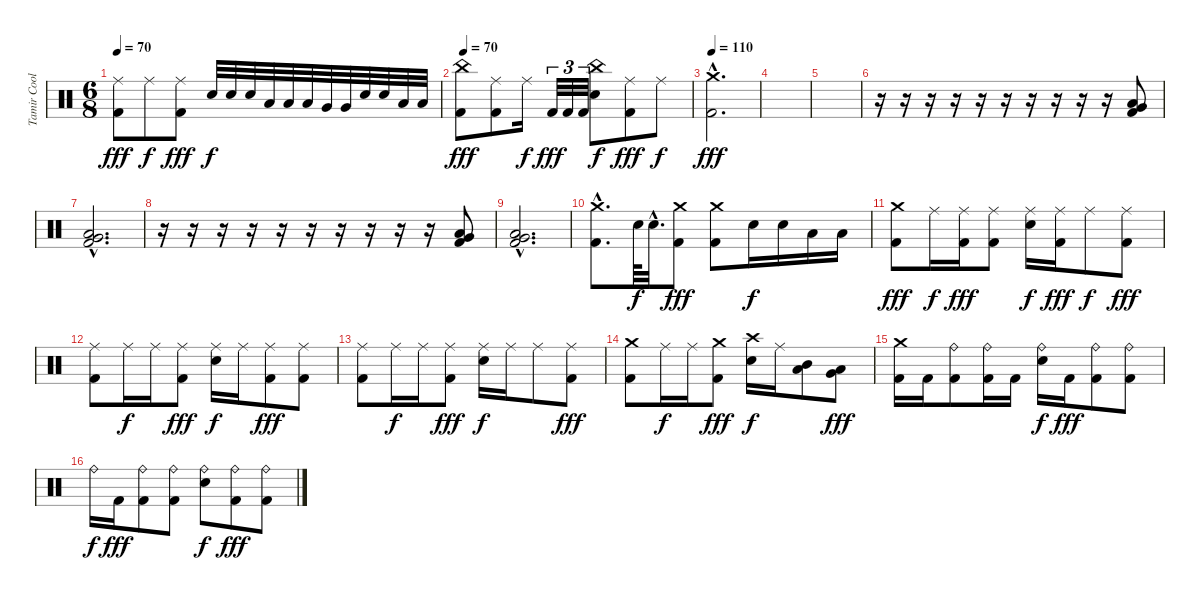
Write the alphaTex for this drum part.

\track ("Tamir Coolberg" "Tamir Cool") {instrument percussion}
\staff {score}
\articulation defaults
\ts (6 8)
\tempo 70
\clef neutral
\ks c
("Ride (middle)" "Kick (hit) 2").8{dy fff} "Ride (middle)".8{dy f} ("Ride (middle)" "Kick (hit) 2").8{dy fff} "Electric Snare (hit)".32{dy f} "Electric Snare (hit)".32 "Electric Snare (hit)".32 "Low Tom (hit)".32 "Low Tom (hit)".32 "Low Tom (hit)".32 "Very Low Tom (hit)".32 "Very Low Tom (hit)".32 "Electric Snare (hit)".32 "Electric Snare (hit)".32 "Low Tom (hit)".32 "Low Tom (hit)".32 |
\tempo 70
("China (hit)" "Kick (hit) 2").8{dy fff} ("Ride (middle)" "Kick (hit) 2").8 "Ride (middle)".16{dy f} "Kick (hit) 2".32{tu (3 2) dy fff} "Kick (hit) 2".32{tu (3 2)} "Kick (hit) 2".32{tu (3 2)} ("China (hit)" "Electric Snare (hit)").8{dy f} ("Ride (middle)" "Kick (hit) 2").8{dy fff} "Ride (middle)".8{dy f} |
\tempo 110
("Crash medium (hit)"{hac} "Kick (hit) 2"{hac}).2{d dy fff} |
|
|
r.16 r.16 r.16 r.16 r.16 r.16 r.16 r.16 r.16 r.16 ("Very Low Tom (hit)" "Low Floor Tom (hit)" "Kick (hit) 2").8 |
("Very Low Tom (hit)"{hac} "Low Floor Tom (hit)"{hac} "Kick (hit) 2"{hac}).2{d} |
r.16 r.16 r.16 r.16 r.16 r.16 r.16 r.16 r.16 r.16 ("Very Low Tom (hit)" "Low Floor Tom (hit)" "Kick (hit) 2").8 |
("Very Low Tom (hit)"{hac} "Low Floor Tom (hit)"{hac} "Kick (hit) 2"{hac}).2{d} |
("Crash medium (hit)"{hac} "Kick (hit) 2"{hac}).8{d} "Electric Snare (hit)".64{dy f} "Electric Snare (hit)"{hac}.32{d} ("Crash medium (hit)" "Kick (hit) 2").8{dy fff} ("Crash medium (hit)" "Kick (hit) 2").8 "Electric Snare (hit)".16{dy f} "Electric Snare (hit)".16 "Low Tom (hit)".16 "Low Tom (hit)".16 |
("Crash medium (hit)" "Kick (hit) 2").8{dy fff} "Ride (middle)".16{dy f} ("Ride (middle)" "Kick (hit) 2").16{dy fff} ("Ride (middle)" "Kick (hit) 2").8 ("Ride (middle)" "Electric Snare (hit)").16{dy f} ("Ride (middle)" "Kick (hit) 2").16{dy fff} "Ride (middle)".8{dy f} ("Ride (middle)" "Kick (hit) 2").8{dy fff} |
("Ride (middle)" "Kick (hit) 2").8 "Ride (middle)".16{dy f} "Ride (middle)".16 ("Ride (middle)" "Kick (hit) 2").8{dy fff} ("Ride (middle)" "Electric Snare (hit)").16{dy f} "Ride (middle)".16 ("Ride (middle)" "Kick (hit) 2").8{dy fff} ("Ride (middle)" "Kick (hit) 2").8 |
("Ride (middle)" "Kick (hit) 2").8 "Ride (middle)".16{dy f} "Ride (middle)".16 ("Ride (middle)" "Kick (hit) 2").8{dy fff} ("Ride (middle)" "Electric Snare (hit)").16{dy f} "Ride (middle)".16 "Ride (middle)".8 ("Ride (middle)" "Kick (hit) 2").8{dy fff} |
("Crash medium (hit)" "Kick (hit) 2").8 "Ride (middle)".16{dy f} "Ride (middle)".16 ("Crash medium (hit)" "Kick (hit) 2").8{dy fff} ("Crash high (hit)" "Electric Snare (hit)").16{dy f} "Ride (middle)".16 ("Mid Tom (hit)" "Low Tom (hit)").8 ("Very Low Tom (hit)" "Low Tom (hit)").8{dy fff} |
("Crash medium (hit)" "Kick (hit) 2").16 "Kick (hit) 2".16 ("Ride (bell)" "Kick (hit) 2").8 ("Ride (bell)" "Kick (hit) 2").16 "Kick (hit) 2".16 ("Ride (bell)" "Electric Snare (hit)").16{dy f} "Kick (hit) 2".16{dy fff} ("Ride (bell)" "Kick (hit) 2").8 ("Ride (bell)" "Kick (hit) 2").8 |
"Ride (bell)".16{dy f} "Kick (hit) 2".16{dy fff} ("Ride (bell)" "Kick (hit) 2").8 ("Ride (bell)" "Kick (hit) 2").8 ("Ride (bell)" "Electric Snare (hit)").8{dy f} ("Ride (bell)" "Kick (hit) 2").8{dy fff} ("Ride (bell)" "Kick (hit) 2").8
